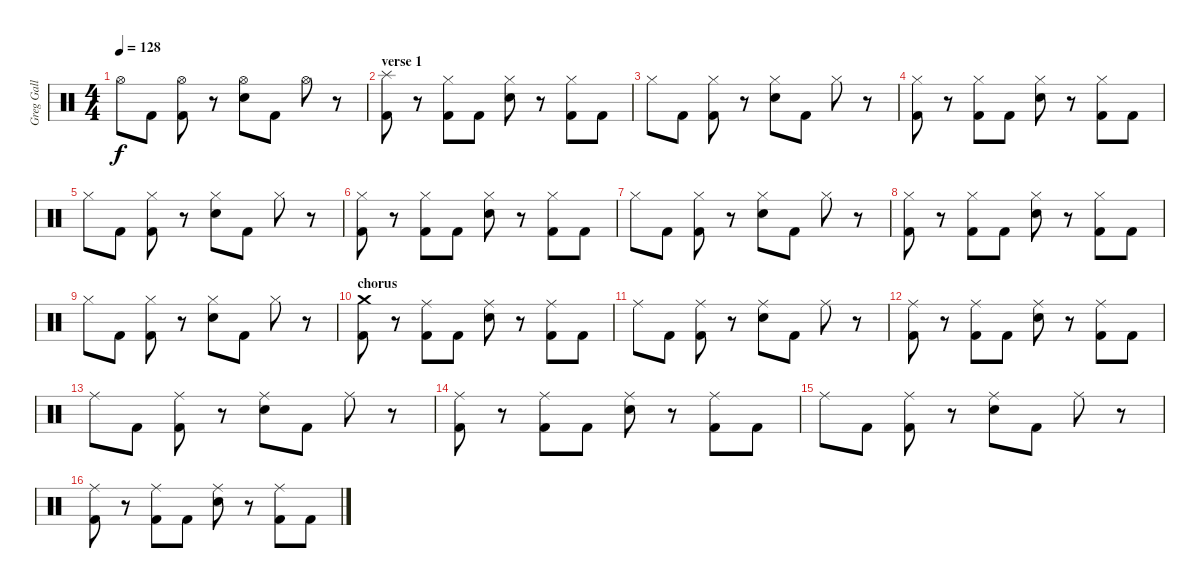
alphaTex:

\track ("Greg Gall" "Greg Gall") {instrument percussion}
\staff {score}
\articulation defaults
\ts (4 4)
\tempo 128
\clef neutral
\ks c "Hi-Hat (open)".8{dy f} "Kick (hit) 2".8
("Hi-Hat (open)" "Kick (hit) 2").8 r.8 ("Hi-Hat (open)" "Electric Snare (hit)").8 "Kick (hit) 2".8 "Hi-Hat (open)".8 r.8 |
\section ("" "verse 1")
("Splash (hit)" "Kick (hit) 2").8 r.8 ("Hi-Hat (closed)" "Kick (hit) 2").8 "Kick (hit) 2".8 ("Hi-Hat (closed)" "Electric Snare (hit)").8 r.8 ("Hi-Hat (closed)" "Kick (hit) 2").8 "Kick (hit) 2".8 |
"Hi-Hat (closed)".8 "Kick (hit) 2".8 ("Hi-Hat (closed)" "Kick (hit) 2").8 r.8 ("Hi-Hat (closed)" "Electric Snare (hit)").8 "Kick (hit) 2".8 "Hi-Hat (closed)".8 r.8 |
("Hi-Hat (closed)" "Kick (hit) 2").8 r.8 ("Hi-Hat (closed)" "Kick (hit) 2").8 "Kick (hit) 2".8 ("Hi-Hat (closed)" "Electric Snare (hit)").8 r.8 ("Hi-Hat (closed)" "Kick (hit) 2").8 "Kick (hit) 2".8 |
"Hi-Hat (closed)".8 "Kick (hit) 2".8 ("Hi-Hat (closed)" "Kick (hit) 2").8 r.8 ("Hi-Hat (closed)" "Electric Snare (hit)").8 "Kick (hit) 2".8 "Hi-Hat (closed)".8 r.8 |
("Hi-Hat (closed)" "Kick (hit) 2").8 r.8 ("Hi-Hat (closed)" "Kick (hit) 2").8 "Kick (hit) 2".8 ("Hi-Hat (closed)" "Electric Snare (hit)").8 r.8 ("Hi-Hat (closed)" "Kick (hit) 2").8 "Kick (hit) 2".8 |
"Hi-Hat (closed)".8 "Kick (hit) 2".8 ("Hi-Hat (closed)" "Kick (hit) 2").8 r.8 ("Hi-Hat (closed)" "Electric Snare (hit)").8 "Kick (hit) 2".8 "Hi-Hat (closed)".8 r.8 |
("Hi-Hat (closed)" "Kick (hit) 2").8 r.8 ("Hi-Hat (closed)" "Kick (hit) 2").8 "Kick (hit) 2".8 ("Hi-Hat (closed)" "Electric Snare (hit)").8 r.8 ("Hi-Hat (closed)" "Kick (hit) 2").8 "Kick (hit) 2".8 |
"Hi-Hat (closed)".8 "Kick (hit) 2".8 ("Hi-Hat (closed)" "Kick (hit) 2").8 r.8 ("Hi-Hat (closed)" "Electric Snare (hit)").8 "Kick (hit) 2".8 "Hi-Hat (closed)".8 r.8 |
\section ("" "chorus")
("Crash medium (hit)" "Kick (hit) 2").8 r.8 ("Ride (middle)" "Kick (hit) 2").8 "Kick (hit) 2".8 ("Ride (middle)" "Electric Snare (hit)").8 r.8 ("Ride (middle)" "Kick (hit) 2").8 "Kick (hit) 2".8 |
"Ride (middle)".8 "Kick (hit) 2".8 ("Ride (middle)" "Kick (hit) 2").8 r.8 ("Ride (middle)" "Electric Snare (hit)").8 "Kick (hit) 2".8 "Ride (middle)".8 r.8 |
("Ride (middle)" "Kick (hit) 2").8 r.8 ("Ride (middle)" "Kick (hit) 2").8 "Kick (hit) 2".8 ("Ride (middle)" "Electric Snare (hit)").8 r.8 ("Ride (middle)" "Kick (hit) 2").8 "Kick (hit) 2".8 |
"Ride (middle)".8 "Kick (hit) 2".8 ("Ride (middle)" "Kick (hit) 2").8 r.8 ("Ride (middle)" "Electric Snare (hit)").8 "Kick (hit) 2".8 "Ride (middle)".8 r.8 |
("Ride (middle)" "Kick (hit) 2").8 r.8 ("Ride (middle)" "Kick (hit) 2").8 "Kick (hit) 2".8 ("Ride (middle)" "Electric Snare (hit)").8 r.8 ("Ride (middle)" "Kick (hit) 2").8 "Kick (hit) 2".8 |
"Ride (middle)".8 "Kick (hit) 2".8 ("Ride (middle)" "Kick (hit) 2").8 r.8 ("Ride (middle)" "Electric Snare (hit)").8 "Kick (hit) 2".8 "Ride (middle)".8 r.8 |
("Ride (middle)" "Kick (hit) 2").8 r.8 ("Ride (middle)" "Kick (hit) 2").8 "Kick (hit) 2".8 ("Ride (middle)" "Electric Snare (hit)").8 r.8 ("Ride (middle)" "Kick (hit) 2").8 "Kick (hit) 2".8
